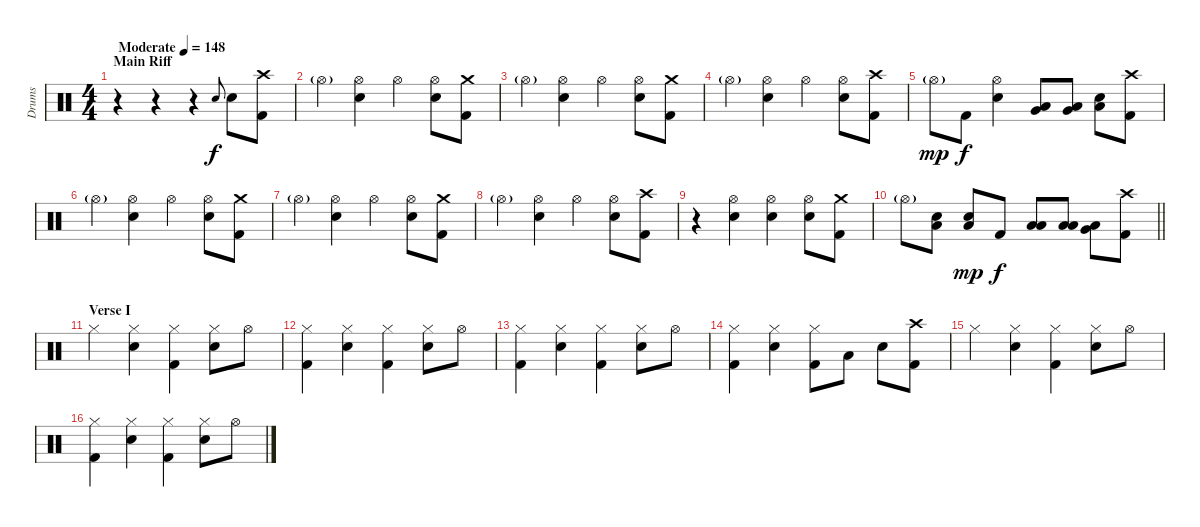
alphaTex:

\track ("Drums" "Drums") {instrument percussion}
\staff {score}
\articulation defaults
\ts (4 4)
\section ("" "Main Riff")
\tempo (148 "Moderate")
\clef neutral
\ks c
r.4{dy f} r.4 r.4 "Electric Snare (hit)".8{gr onbeat} "Electric Snare (hit)".8 ("Crash high (hit)" "Kick (hit) 2").8 |
"Hi-Hat (open)"{g}.4 ("Hi-Hat (open)" "Electric Snare (hit)").4 "Hi-Hat (open)".4 ("Hi-Hat (open)" "Electric Snare (hit)").8 ("Crash medium (hit)" "Kick (hit) 2").8 |
"Hi-Hat (open)"{g}.4 ("Hi-Hat (open)" "Electric Snare (hit)").4 "Hi-Hat (open)".4 ("Hi-Hat (open)" "Electric Snare (hit)").8 ("Crash medium (hit)" "Kick (hit) 2").8 |
"Hi-Hat (open)"{g}.4 ("Hi-Hat (open)" "Electric Snare (hit)").4 "Hi-Hat (open)".4 ("Hi-Hat (open)" "Electric Snare (hit)").8 ("Crash high (hit)" "Kick (hit) 2").8 |
"Hi-Hat (open)"{g}.8{dy mp} "Kick (hit) 2".8{dy f} ("Hi-Hat (open)" "Electric Snare (hit)").4 ("Very Low Tom (hit)" "Low Tom (hit)").8 ("Very Low Tom (hit)" "Low Tom (hit)").8 ("Electric Snare (hit)" "Low Floor Tom (hit)").8 ("Kick (hit) 2" "Crash high (hit)").8 |
"Hi-Hat (open)"{g}.4 ("Hi-Hat (open)" "Electric Snare (hit)").4 "Hi-Hat (open)".4 ("Hi-Hat (open)" "Electric Snare (hit)").8 ("Crash medium (hit)" "Kick (hit) 2").8 |
"Hi-Hat (open)"{g}.4 ("Hi-Hat (open)" "Electric Snare (hit)").4 "Hi-Hat (open)".4 ("Hi-Hat (open)" "Electric Snare (hit)").8 ("Crash medium (hit)" "Kick (hit) 2").8 |
"Hi-Hat (open)"{g}.4 ("Hi-Hat (open)" "Electric Snare (hit)").4 "Hi-Hat (open)".4 ("Hi-Hat (open)" "Electric Snare (hit)").8 ("Crash high (hit)" "Kick (hit) 2").8 |
r.4 ("Hi-Hat (open)" "Electric Snare (hit)").4 ("Hi-Hat (open)" "Electric Snare (hit)").4 ("Hi-Hat (open)" "Electric Snare (hit)").8 ("Crash medium (hit)" "Kick (hit) 2").8 |
\barLineRight lightlight "Hi-Hat (open)"{g}.8
("Low Floor Tom (hit)" "Electric Snare (hit)").8 ("Low Floor Tom (hit)" "Electric Snare (hit)").8{dy mp} "Kick (hit) 2".8{dy f} ("Low Tom (hit)" "Low Floor Tom (hit)").8 ("Low Tom (hit)" "Low Floor Tom (hit)").8 ("Very Low Tom (hit)" "Low Floor Tom (hit)").8 ("Kick (hit) 2" "Crash high (hit)").8 |
\section ("" "Verse I")
"Hi-Hat (closed)".4 ("Electric Snare (hit)" "Hi-Hat (closed)").4 ("Kick (hit) 2" "Hi-Hat (closed)").4 ("Electric Snare (hit)" "Hi-Hat (closed)").8 "Hi-Hat (open)".8 |
("Hi-Hat (closed)" "Kick (hit) 2").4 ("Hi-Hat (closed)" "Electric Snare (hit)").4 ("Hi-Hat (closed)" "Kick (hit) 2").4 ("Hi-Hat (closed)" "Electric Snare (hit)").8 "Hi-Hat (open)".8 |
("Hi-Hat (closed)" "Kick (hit) 2").4 ("Hi-Hat (closed)" "Electric Snare (hit)").4 ("Hi-Hat (closed)" "Kick (hit) 2").4 ("Hi-Hat (closed)" "Electric Snare (hit)").8 "Hi-Hat (open)".8 |
("Hi-Hat (closed)" "Kick (hit) 2").4 ("Hi-Hat (closed)" "Electric Snare (hit)").4 ("Hi-Hat (closed)" "Kick (hit) 2").8 "Low Tom (hit)".8 "Electric Snare (hit)".8 ("Kick (hit) 2" "Crash high (hit)").8 |
"Hi-Hat (closed)".4 ("Electric Snare (hit)" "Hi-Hat (closed)").4 ("Kick (hit) 2" "Hi-Hat (closed)").4 ("Electric Snare (hit)" "Hi-Hat (closed)").8 "Hi-Hat (open)".8 |
("Hi-Hat (closed)" "Kick (hit) 2").4 ("Hi-Hat (closed)" "Electric Snare (hit)").4 ("Hi-Hat (closed)" "Kick (hit) 2").4 ("Hi-Hat (closed)" "Electric Snare (hit)").8 "Hi-Hat (open)".8
